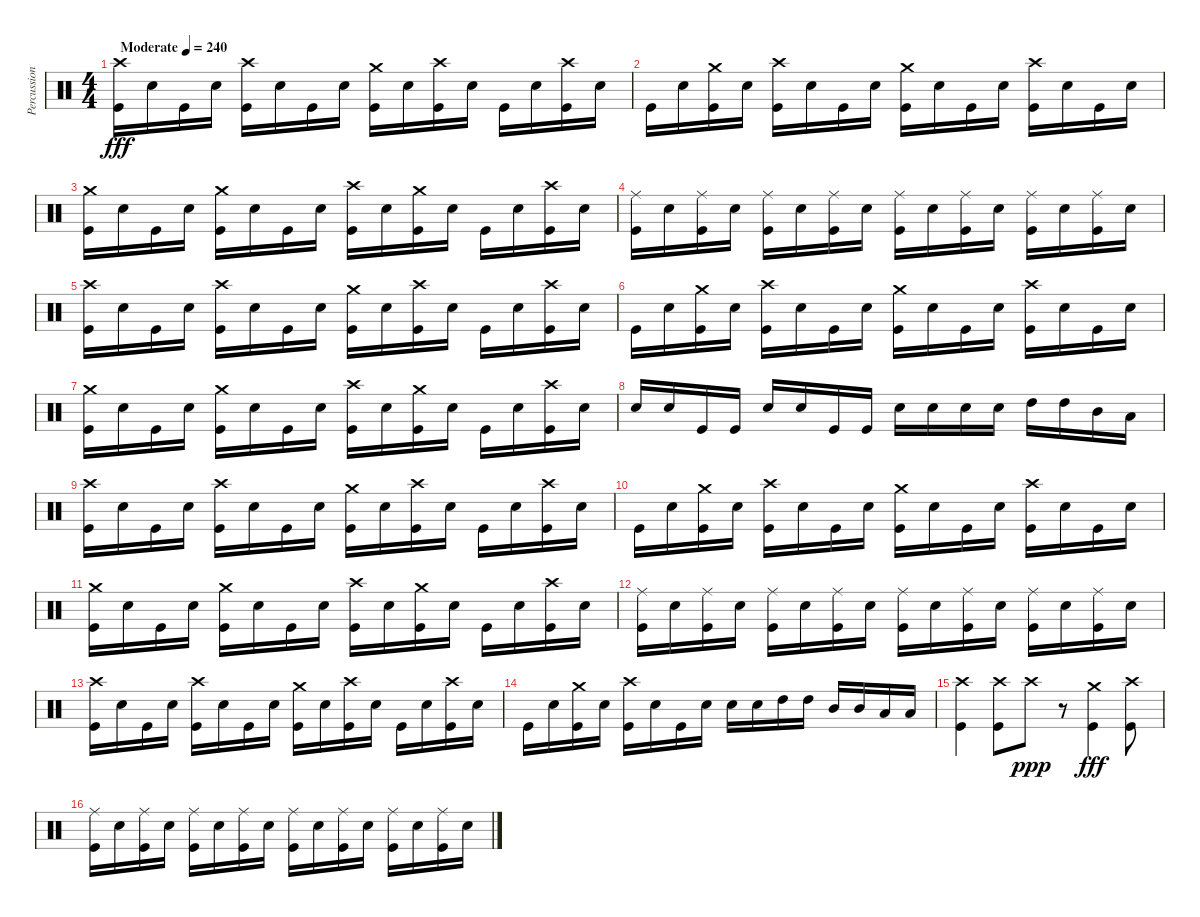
\track ("Percussion" "Percussion") {instrument percussion}
\staff {score}
\articulation defaults
\ts (4 4)
\tempo (240 "Moderate")
\clef neutral
\ks c
("Kick (hit)" "Crash high (hit)").16{dy fff} "Snare (hit) 2".16 "Kick (hit)".16 "Snare (hit) 2".16 ("Kick (hit)" "Crash high (hit)").16 "Snare (hit) 2".16 "Kick (hit)".16 "Snare (hit) 2".16 ("Kick (hit)" "Crash medium (hit)").16 "Snare (hit) 2".16 ("Kick (hit)" "Crash high (hit)").16 "Snare (hit) 2".16 "Kick (hit)".16 "Snare (hit) 2".16 ("Kick (hit)" "Crash high (hit)").16 "Snare (hit) 2".16 |
"Kick (hit)".16 "Snare (hit) 2".16 ("Kick (hit)" "Crash medium (hit)").16 "Snare (hit) 2".16 ("Kick (hit)" "Crash high (hit)").16 "Snare (hit) 2".16 "Kick (hit)".16 "Snare (hit) 2".16 ("Kick (hit)" "Crash medium (hit)").16 "Snare (hit) 2".16 "Kick (hit)".16 "Snare (hit) 2".16 ("Crash high (hit)" "Kick (hit)").16 "Snare (hit) 2".16 "Kick (hit)".16 "Snare (hit) 2".16 |
("Kick (hit)" "Crash medium (hit)").16 "Snare (hit) 2".16 "Kick (hit)".16 "Snare (hit) 2".16 ("Kick (hit)" "Crash medium (hit)").16 "Snare (hit) 2".16 "Kick (hit)".16 "Snare (hit) 2".16 ("Kick (hit)" "Crash high (hit)").16 "Snare (hit) 2".16 ("Kick (hit)" "Crash medium (hit)").16 "Snare (hit) 2".16 "Kick (hit)".16 "Snare (hit) 2".16 ("Kick (hit)" "Crash high (hit)").16 "Snare (hit) 2".16 |
("Kick (hit)" "Ride (middle)").16 "Snare (hit) 2".16 ("Kick (hit)" "Ride (middle)").16 "Snare (hit) 2".16 ("Kick (hit)" "Ride (middle)").16 "Snare (hit) 2".16 ("Kick (hit)" "Ride (middle)").16 "Snare (hit) 2".16 ("Kick (hit)" "Ride (middle)").16 "Snare (hit) 2".16 ("Kick (hit)" "Ride (middle)").16 "Snare (hit) 2".16 ("Kick (hit)" "Ride (middle)").16 "Snare (hit) 2".16 ("Kick (hit)" "Ride (middle)").16 "Snare (hit) 2".16 |
("Kick (hit)" "Crash high (hit)").16 "Snare (hit) 2".16 "Kick (hit)".16 "Snare (hit) 2".16 ("Kick (hit)" "Crash high (hit)").16 "Snare (hit) 2".16 "Kick (hit)".16 "Snare (hit) 2".16 ("Kick (hit)" "Crash medium (hit)").16 "Snare (hit) 2".16 ("Kick (hit)" "Crash high (hit)").16 "Snare (hit) 2".16 "Kick (hit)".16 "Snare (hit) 2".16 ("Kick (hit)" "Crash high (hit)").16 "Snare (hit) 2".16 |
"Kick (hit)".16 "Snare (hit) 2".16 ("Kick (hit)" "Crash medium (hit)").16 "Snare (hit) 2".16 ("Kick (hit)" "Crash high (hit)").16 "Snare (hit) 2".16 "Kick (hit)".16 "Snare (hit) 2".16 ("Kick (hit)" "Crash medium (hit)").16 "Snare (hit) 2".16 "Kick (hit)".16 "Snare (hit) 2".16 ("Crash high (hit)" "Kick (hit)").16 "Snare (hit) 2".16 "Kick (hit)".16 "Snare (hit) 2".16 |
("Kick (hit)" "Crash medium (hit)").16 "Snare (hit) 2".16 "Kick (hit)".16 "Snare (hit) 2".16 ("Kick (hit)" "Crash medium (hit)").16 "Snare (hit) 2".16 "Kick (hit)".16 "Snare (hit) 2".16 ("Kick (hit)" "Crash high (hit)").16 "Snare (hit) 2".16 ("Kick (hit)" "Crash medium (hit)").16 "Snare (hit) 2".16 "Kick (hit)".16 "Snare (hit) 2".16 ("Kick (hit)" "Crash high (hit)").16 "Snare (hit) 2".16 |
"Snare (hit) 2".16 "Snare (hit) 2".16 "Kick (hit)".16 "Kick (hit)".16 "Snare (hit) 2".16 "Snare (hit) 2".16 "Kick (hit)".16 "Kick (hit)".16 "Snare (hit) 2".16 "Snare (hit) 2".16 "Snare (hit) 2".16 "Snare (hit) 2".16 "High Tom (hit)".16 "High Tom (hit)".16 "Mid Tom (hit)".16 "Low Tom (hit)".16 |
("Kick (hit)" "Crash high (hit)").16 "Snare (hit) 2".16 "Kick (hit)".16 "Snare (hit) 2".16 ("Kick (hit)" "Crash high (hit)").16 "Snare (hit) 2".16 "Kick (hit)".16 "Snare (hit) 2".16 ("Kick (hit)" "Crash medium (hit)").16 "Snare (hit) 2".16 ("Kick (hit)" "Crash high (hit)").16 "Snare (hit) 2".16 "Kick (hit)".16 "Snare (hit) 2".16 ("Kick (hit)" "Crash high (hit)").16 "Snare (hit) 2".16 |
"Kick (hit)".16 "Snare (hit) 2".16 ("Kick (hit)" "Crash medium (hit)").16 "Snare (hit) 2".16 ("Kick (hit)" "Crash high (hit)").16 "Snare (hit) 2".16 "Kick (hit)".16 "Snare (hit) 2".16 ("Kick (hit)" "Crash medium (hit)").16 "Snare (hit) 2".16 "Kick (hit)".16 "Snare (hit) 2".16 ("Crash high (hit)" "Kick (hit)").16 "Snare (hit) 2".16 "Kick (hit)".16 "Snare (hit) 2".16 |
("Kick (hit)" "Crash medium (hit)").16 "Snare (hit) 2".16 "Kick (hit)".16 "Snare (hit) 2".16 ("Kick (hit)" "Crash medium (hit)").16 "Snare (hit) 2".16 "Kick (hit)".16 "Snare (hit) 2".16 ("Kick (hit)" "Crash high (hit)").16 "Snare (hit) 2".16 ("Kick (hit)" "Crash medium (hit)").16 "Snare (hit) 2".16 "Kick (hit)".16 "Snare (hit) 2".16 ("Kick (hit)" "Crash high (hit)").16 "Snare (hit) 2".16 |
("Kick (hit)" "Ride (middle)").16 "Snare (hit) 2".16 ("Kick (hit)" "Ride (middle)").16 "Snare (hit) 2".16 ("Kick (hit)" "Ride (middle)").16 "Snare (hit) 2".16 ("Kick (hit)" "Ride (middle)").16 "Snare (hit) 2".16 ("Kick (hit)" "Ride (middle)").16 "Snare (hit) 2".16 ("Kick (hit)" "Ride (middle)").16 "Snare (hit) 2".16 ("Kick (hit)" "Ride (middle)").16 "Snare (hit) 2".16 ("Kick (hit)" "Ride (middle)").16 "Snare (hit) 2".16 |
("Kick (hit)" "Crash high (hit)").16 "Snare (hit) 2".16 "Kick (hit)".16 "Snare (hit) 2".16 ("Kick (hit)" "Crash high (hit)").16 "Snare (hit) 2".16 "Kick (hit)".16 "Snare (hit) 2".16 ("Kick (hit)" "Crash medium (hit)").16 "Snare (hit) 2".16 ("Kick (hit)" "Crash high (hit)").16 "Snare (hit) 2".16 "Kick (hit)".16 "Snare (hit) 2".16 ("Kick (hit)" "Crash high (hit)").16 "Snare (hit) 2".16 |
"Kick (hit)".16 "Snare (hit) 2".16 ("Kick (hit)" "Crash medium (hit)").16 "Snare (hit) 2".16 ("Kick (hit)" "Crash high (hit)").16 "Snare (hit) 2".16 "Kick (hit)".16 "Snare (hit) 2".16 "Snare (hit) 2".16 "Snare (hit) 2".16 "High Tom (hit)".16 "High Tom (hit)".16 "Mid Tom (hit)".16 "Mid Tom (hit)".16 "Low Tom (hit)".16 "Low Tom (hit)".16 |
("Kick (hit)" "Crash high (hit)").4 ("Kick (hit)" "Crash high (hit)").8 "Crash high (hit)".8{dy ppp} r.8 ("Crash medium (hit)" "Kick (hit)").4{dy fff} ("Crash high (hit)" "Kick (hit)").8 |
("Kick (hit)" "Ride (middle)").16 "Snare (hit) 2".16 ("Kick (hit)" "Ride (middle)").16 "Snare (hit) 2".16 ("Kick (hit)" "Ride (middle)").16 "Snare (hit) 2".16 ("Kick (hit)" "Ride (middle)").16 "Snare (hit) 2".16 ("Kick (hit)" "Ride (middle)").16 "Snare (hit) 2".16 ("Kick (hit)" "Ride (middle)").16 "Snare (hit) 2".16 ("Kick (hit)" "Ride (middle)").16 "Snare (hit) 2".16 ("Kick (hit)" "Ride (middle)").16 "Snare (hit) 2".16
